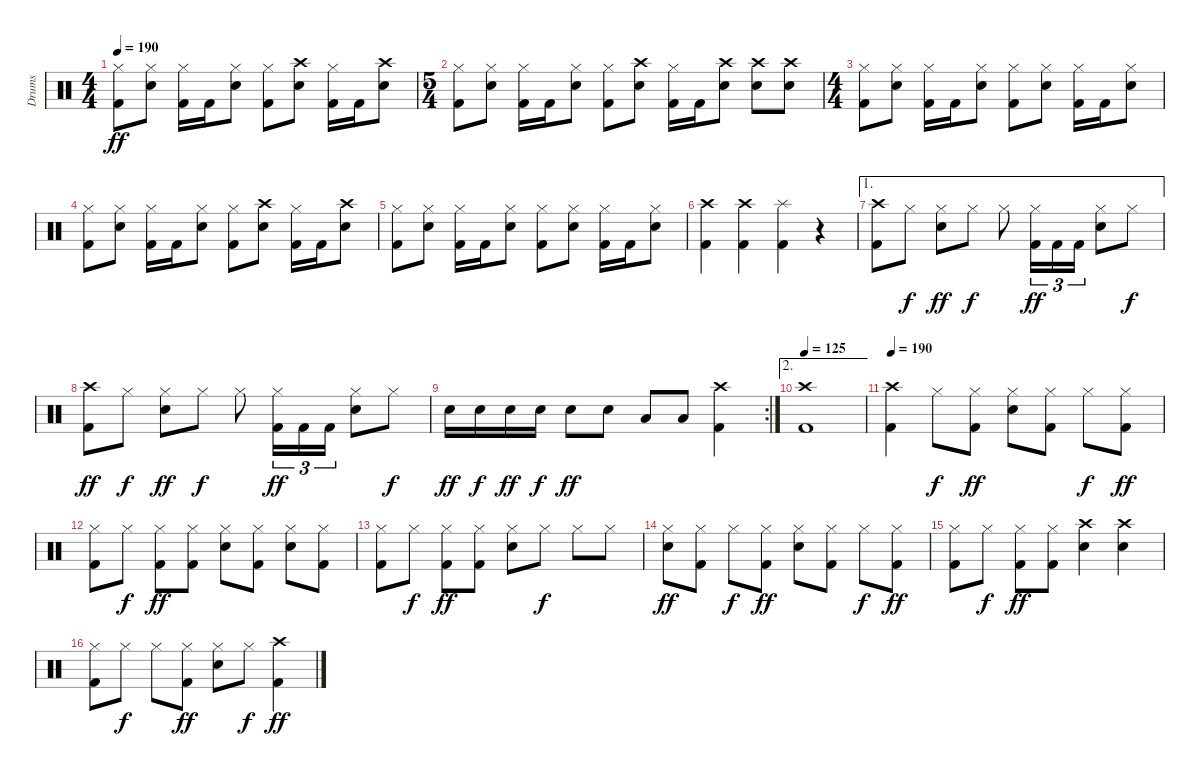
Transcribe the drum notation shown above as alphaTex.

\track ("Drums" "Drums") {instrument percussion}
\staff {score}
\articulation defaults
\ts (4 4)
\tempo 190
\clef neutral
\ks c
("Hi-Hat (closed)" "Kick (hit) 2").8{dy ff} ("Hi-Hat (closed)" "Snare (hit) 2").8 ("Hi-Hat (closed)" "Kick (hit) 2").16 "Kick (hit) 2".16 ("Hi-Hat (closed)" "Snare (hit) 2").8 ("Hi-Hat (closed)" "Kick (hit) 2").8 ("Crash high (hit)" "Snare (hit) 2").8 ("Hi-Hat (closed)" "Kick (hit) 2").16 "Kick (hit) 2".16 ("Crash high (hit)" "Snare (hit) 2").8 |
\ts (5 4)
("Hi-Hat (closed)" "Kick (hit) 2").8 ("Hi-Hat (closed)" "Snare (hit) 2").8 ("Hi-Hat (closed)" "Kick (hit) 2").16 "Kick (hit) 2".16 ("Hi-Hat (closed)" "Snare (hit) 2").8 ("Hi-Hat (closed)" "Kick (hit) 2").8 ("Crash high (hit)" "Snare (hit) 2").8 ("Hi-Hat (closed)" "Kick (hit) 2").16 "Kick (hit) 2".16 ("Crash high (hit)" "Snare (hit) 2").8 ("Crash high (hit)" "Snare (hit) 2").8 ("Crash high (hit)" "Snare (hit) 2").8 |
\ts (4 4)
("Hi-Hat (closed)" "Kick (hit) 2").8 ("Hi-Hat (closed)" "Snare (hit) 2").8 ("Hi-Hat (closed)" "Kick (hit) 2").16 "Kick (hit) 2".16 ("Hi-Hat (closed)" "Snare (hit) 2").8 ("Hi-Hat (closed)" "Kick (hit) 2").8 ("Hi-Hat (closed)" "Snare (hit) 2").8 ("Hi-Hat (closed)" "Kick (hit) 2").16 "Kick (hit) 2".16 ("Hi-Hat (closed)" "Snare (hit) 2").8 |
("Hi-Hat (closed)" "Kick (hit) 2").8 ("Hi-Hat (closed)" "Snare (hit) 2").8 ("Hi-Hat (closed)" "Kick (hit) 2").16 "Kick (hit) 2".16 ("Hi-Hat (closed)" "Snare (hit) 2").8 ("Hi-Hat (closed)" "Kick (hit) 2").8 ("Crash high (hit)" "Snare (hit) 2").8 ("Hi-Hat (closed)" "Kick (hit) 2").16 "Kick (hit) 2".16 ("Crash high (hit)" "Snare (hit) 2").8 |
("Hi-Hat (closed)" "Kick (hit) 2").8 ("Hi-Hat (closed)" "Snare (hit) 2").8 ("Hi-Hat (closed)" "Kick (hit) 2").16 "Kick (hit) 2".16 ("Hi-Hat (closed)" "Snare (hit) 2").8 ("Hi-Hat (closed)" "Kick (hit) 2").8 ("Hi-Hat (closed)" "Snare (hit) 2").8 ("Hi-Hat (closed)" "Kick (hit) 2").16 "Kick (hit) 2".16 ("Hi-Hat (closed)" "Snare (hit) 2").8 |
("Crash high (hit)" "Kick (hit) 2").4 ("Crash high (hit)" "Kick (hit) 2").4 ("Splash (hit)" "Kick (hit) 2").4 r.4 |
\ae 1
("Crash high (hit)" "Kick (hit) 2").8 "Hi-Hat (closed)".8{dy f} ("Hi-Hat (closed)" "Snare (hit) 2").8{dy ff} "Hi-Hat (closed)".8{dy f} "Hi-Hat (closed)".8 ("Hi-Hat (closed)" "Kick (hit) 2").16{tu (3 2) dy ff} "Kick (hit) 2".16{tu (3 2)} "Kick (hit) 2".16{tu (3 2)} ("Hi-Hat (closed)" "Snare (hit) 2").8 "Hi-Hat (closed)".8{dy f} |
("Crash high (hit)" "Kick (hit) 2").8{dy ff} "Hi-Hat (closed)".8{dy f} ("Hi-Hat (closed)" "Snare (hit) 2").8{dy ff} "Hi-Hat (closed)".8{dy f} "Hi-Hat (closed)".8 ("Hi-Hat (closed)" "Kick (hit) 2").16{tu (3 2) dy ff} "Kick (hit) 2".16{tu (3 2)} "Kick (hit) 2".16{tu (3 2)} ("Hi-Hat (closed)" "Snare (hit) 2").8 "Hi-Hat (closed)".8{dy f} |
\rc 2 "Snare (hit) 2".16{dy ff} "Snare (hit) 2".16{dy f} "Snare (hit) 2".16{dy ff} "Snare (hit) 2".16{dy f} "Snare (hit) 2".8{dy ff} "Snare (hit) 2".8 "Low Floor Tom (hit)".8 "Low Floor Tom (hit)".8
("Crash high (hit)" "Kick (hit) 2").4 |
\ae 2
\tempo 125
("Crash high (hit)" "Kick (hit) 2").1 |
\tempo 190
("Crash high (hit)" "Kick (hit) 2").4 "Hi-Hat (closed)".8{dy f} ("Hi-Hat (closed)" "Kick (hit) 2").8{dy ff} ("Hi-Hat (closed)" "Snare (hit) 2").8 ("Hi-Hat (closed)" "Kick (hit) 2").8 "Hi-Hat (closed)".8{dy f} ("Hi-Hat (closed)" "Kick (hit) 2").8{dy ff} |
("Hi-Hat (closed)" "Kick (hit) 2").8 "Hi-Hat (closed)".8{dy f} ("Hi-Hat (closed)" "Kick (hit) 2").8{dy ff} ("Hi-Hat (closed)" "Kick (hit) 2").8 ("Hi-Hat (closed)" "Snare (hit) 2").8 ("Hi-Hat (closed)" "Kick (hit) 2").8 ("Hi-Hat (closed)" "Snare (hit) 2").8 ("Hi-Hat (closed)" "Kick (hit) 2").8 |
("Hi-Hat (closed)" "Kick (hit) 2").8 "Hi-Hat (closed)".8{dy f} ("Hi-Hat (closed)" "Kick (hit) 2").8{dy ff} ("Hi-Hat (closed)" "Kick (hit) 2").8 ("Hi-Hat (closed)" "Snare (hit) 2").8 "Hi-Hat (closed)".8{dy f} "Hi-Hat (closed)".8 "Hi-Hat (closed)".8 |
("Hi-Hat (closed)" "Snare (hit) 2").8{dy ff} ("Hi-Hat (closed)" "Kick (hit) 2").8 "Hi-Hat (closed)".8{dy f} ("Hi-Hat (closed)" "Kick (hit) 2").8{dy ff} ("Hi-Hat (closed)" "Snare (hit) 2").8 ("Hi-Hat (closed)" "Kick (hit) 2").8 "Hi-Hat (closed)".8{dy f} ("Hi-Hat (closed)" "Kick (hit) 2").8{dy ff} |
("Hi-Hat (closed)" "Kick (hit) 2").8 "Hi-Hat (closed)".8{dy f} ("Hi-Hat (closed)" "Kick (hit) 2").8{dy ff} ("Hi-Hat (closed)" "Kick (hit) 2").8 ("Crash high (hit)" "Snare (hit) 2").4 ("Crash high (hit)" "Snare (hit) 2").4 |
("Hi-Hat (closed)" "Kick (hit) 2").8 "Hi-Hat (closed)".8{dy f} "Hi-Hat (closed)".8 ("Hi-Hat (closed)" "Kick (hit) 2").8{dy ff} ("Hi-Hat (closed)" "Snare (hit) 2").8 "Hi-Hat (closed)".8{dy f} ("Crash high (hit)" "Kick (hit) 2").4{dy ff}
